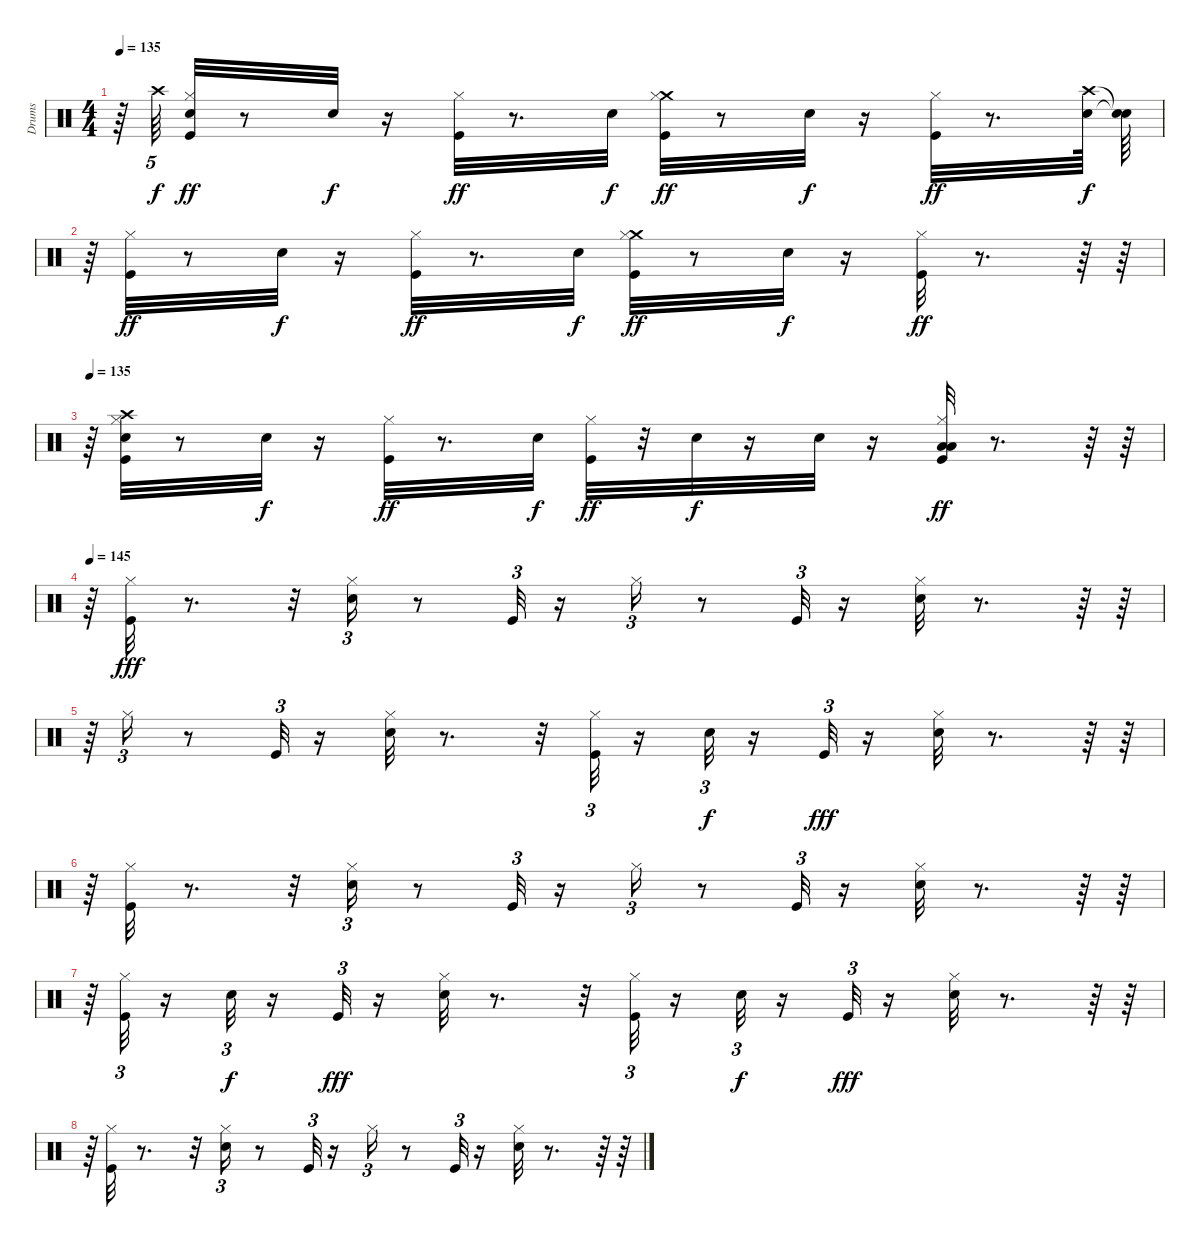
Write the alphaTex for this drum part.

\track ("Drums" "Drums") {instrument percussion}
\staff {score}
\articulation defaults
\ts (4 4)
\tempo 135
\clef neutral
\ks c
r.64{dy ff} "Crash high (hit)".64{tu (5 4) dy f} ("Kick (hit)" "Hi-Hat (closed)" "Electric Snare (hit)").32{dy ff} r.8 "Electric Snare (hit)".32{dy f} r.16 ("Kick (hit)" "Hi-Hat (closed)").32{dy ff} r.8{d} "Electric Snare (hit)".32{dy f} ("Kick (hit)" "Crash medium (hit)" "Hi-Hat (closed)").32{dy ff} r.8 "Electric Snare (hit)".32{dy f} r.16 ("Kick (hit)" "Hi-Hat (closed)").32{dy ff} r.8{d} ("Crash high (hit)" "Electric Snare (hit)").64{dy f} ("Snare (hit)"{t} "Snare (hit)"{t}).64 |
r.64 ("Kick (hit)" "Hi-Hat (closed)").32{dy ff} r.8 "Electric Snare (hit)".32{dy f} r.16 ("Kick (hit)" "Hi-Hat (closed)").32{dy ff} r.8{d} "Electric Snare (hit)".32{dy f} ("Kick (hit)" "Crash medium (hit)" "Hi-Hat (closed)").32{dy ff} r.8 "Electric Snare (hit)".32{dy f} r.16 ("Kick (hit)" "Hi-Hat (closed)").32{dy ff} r.8{d} r.64 r.64 |
\tempo 135
r.64 ("Kick (hit)" "Hi-Hat (closed)" "Crash high (hit)" "Electric Snare (hit)").32 r.8 "Electric Snare (hit)".32{dy f} r.16 ("Kick (hit)" "Hi-Hat (closed)").32{dy ff} r.8{d} "Electric Snare (hit)".32{dy f} ("Kick (hit)" "Hi-Hat (closed)").32{dy ff} r.32 "Electric Snare (hit)".32{dy f} r.16 "Electric Snare (hit)".32 r.16 ("Kick (hit)" "Hi-Hat (closed)" "Low Tom (hit)" "Low Floor Tom (hit)").32{dy ff} r.8{d} r.64 r.64 |
\tempo 145
r.64 ("Kick (hit)" "Hi-Hat (closed)").32{dy fff} r.8{d} r.32 ("Electric Snare (hit)" "Hi-Hat (closed)").16{tu (3 2)} r.8 "Kick (hit)".32{tu (3 2)} r.16 "Hi-Hat (closed)".16{tu (3 2)} r.8 "Kick (hit)".32{tu (3 2)} r.16 ("Electric Snare (hit)" "Hi-Hat (closed)").32 r.8{d} r.64 r.64 |
r.64 "Hi-Hat (closed)".16{tu (3 2)} r.8 "Kick (hit)".32{tu (3 2)} r.16 ("Electric Snare (hit)" "Hi-Hat (closed)").32 r.8{d} r.32 ("Kick (hit)" "Hi-Hat (closed)").32{tu (3 2)} r.16 "Electric Snare (hit)".32{tu (3 2) dy f} r.16 "Kick (hit)".32{tu (3 2) dy fff} r.16 ("Electric Snare (hit)" "Hi-Hat (closed)").32 r.8{d} r.64 r.64 |
r.64 ("Kick (hit)" "Hi-Hat (closed)").32 r.8{d} r.32 ("Electric Snare (hit)" "Hi-Hat (closed)").16{tu (3 2)} r.8 "Kick (hit)".32{tu (3 2)} r.16 "Hi-Hat (closed)".16{tu (3 2)} r.8 "Kick (hit)".32{tu (3 2)} r.16 ("Electric Snare (hit)" "Hi-Hat (closed)").32 r.8{d} r.64 r.64 |
r.64 ("Kick (hit)" "Hi-Hat (closed)").32{tu (3 2)} r.16 "Electric Snare (hit)".32{tu (3 2) dy f} r.16 "Kick (hit)".32{tu (3 2) dy fff} r.16 ("Electric Snare (hit)" "Hi-Hat (closed)").32 r.8{d} r.32 ("Kick (hit)" "Hi-Hat (closed)").32{tu (3 2)} r.16 "Electric Snare (hit)".32{tu (3 2) dy f} r.16 "Kick (hit)".32{tu (3 2) dy fff} r.16 ("Electric Snare (hit)" "Hi-Hat (closed)").32 r.8{d} r.64 r.64 |
r.64 ("Kick (hit)" "Hi-Hat (closed)").32 r.8{d} r.32 ("Electric Snare (hit)" "Hi-Hat (closed)").16{tu (3 2)} r.8 "Kick (hit)".32{tu (3 2)} r.16 "Hi-Hat (closed)".16{tu (3 2)} r.8 "Kick (hit)".32{tu (3 2)} r.16 ("Electric Snare (hit)" "Hi-Hat (closed)").32 r.8{d} r.64 r.64
